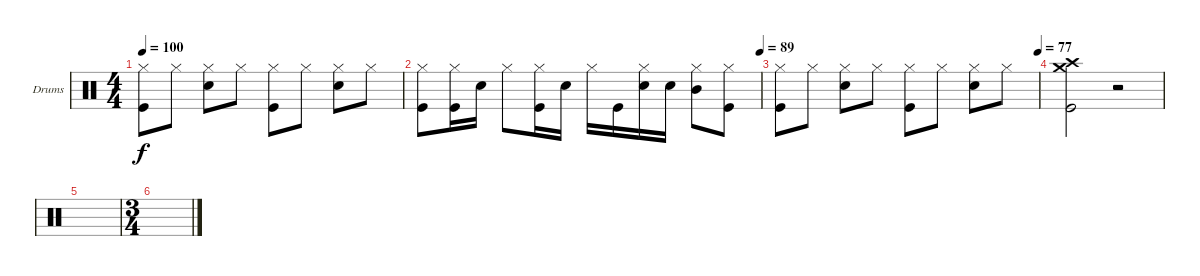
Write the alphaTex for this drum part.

\defaultSystemsLayout 4
\bracketExtendMode groupsimilarinstruments
\firstSystemTrackNameOrientation horizontal
\otherSystemsTrackNameOrientation horizontal
\track ("Drums [Jason]" "Drums") {instrument percussion}
\staff {score}
\articulation defaults
\ts (4 4)
\tempo 100
\clef neutral
\ks c
("Hi-Hat (closed)" "Kick (hit)").8{dy f} "Hi-Hat (closed)".8 ("Hi-Hat (closed)" "Snare (hit) 2").8 "Hi-Hat (closed)".8 ("Hi-Hat (closed)" "Kick (hit)").8 "Hi-Hat (closed)".8 ("Hi-Hat (closed)" "Snare (hit) 2").8 "Hi-Hat (closed)".8 |
\tempo (89 1)
("Hi-Hat (closed)" "Kick (hit)").8 ("Hi-Hat (closed)" "Kick (hit)").16 "Snare (hit) 2".16 "Hi-Hat (closed)".8 ("Hi-Hat (closed)" "Kick (hit)").16 "Snare (hit) 2".16 "Hi-Hat (closed)".16 "Kick (hit)".16 ("Hi-Hat (closed)" "Snare (hit) 2").16 "Snare (hit) 2".16 ("Hi-Hat (closed)" "Mid Tom (hit)").8 ("Hi-Hat (closed)" "Kick (hit)").8 |
\tempo (77 1)
("Hi-Hat (closed)" "Kick (hit)").8 "Hi-Hat (closed)".8 ("Hi-Hat (closed)" "Snare (hit) 2").8 "Hi-Hat (closed)".8 ("Hi-Hat (closed)" "Kick (hit)").8 "Hi-Hat (closed)".8 ("Hi-Hat (closed)" "Snare (hit) 2").8 "Hi-Hat (closed)".8 |
("Crash high (hit)" "Crash medium (hit)" "Kick (hit)").2 r.2 |
|
\ts (3 4)
